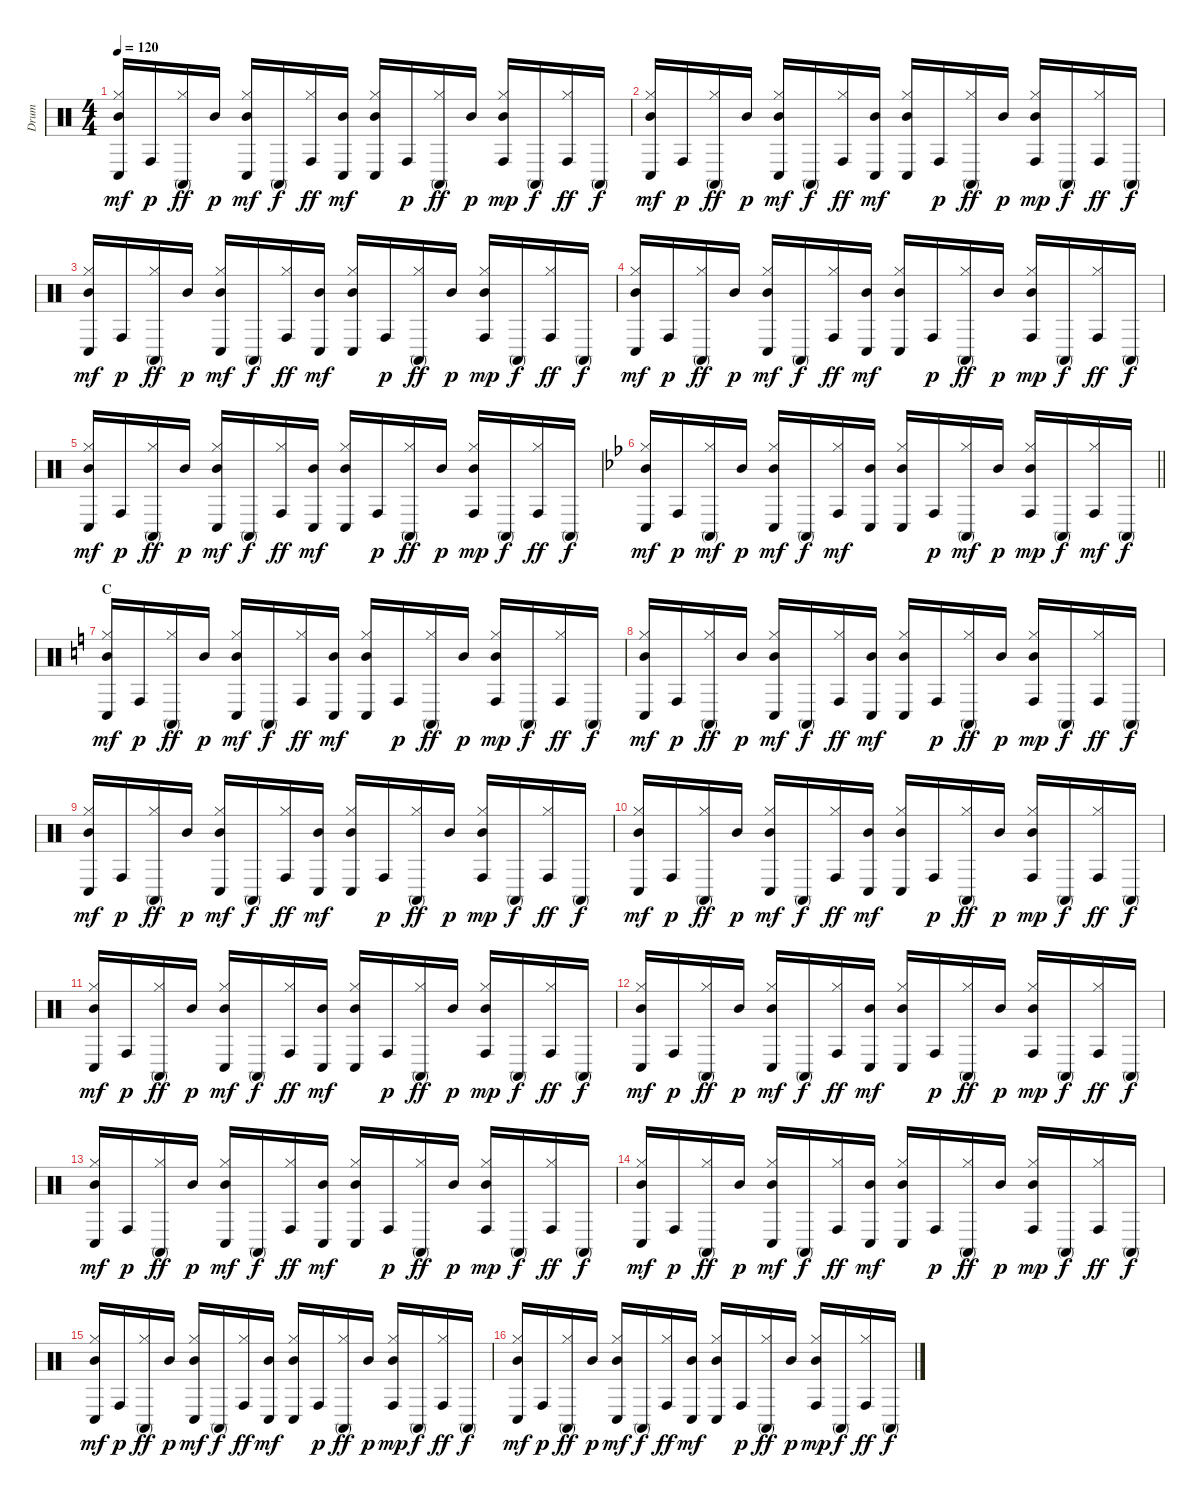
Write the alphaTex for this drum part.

\track ("Drum" "Drum") {instrument percussion}
\staff {score}
\articulation defaults
\ts (4 4)
\tempo 120
\clef neutral
\ks c
("Mid Tom (hit)" "Hi-Hat (closed)" "Conga low (hit)").16{dy mf} "Conga high (hit)".16{dy p} ("Hi-Hat (closed)" "Conga high (mute)").16{dy ff} "Mid Tom (hit)".16{dy p} ("Mid Tom (hit)" "Hi-Hat (closed)" "Conga low (hit)").16{dy mf} "Conga high (mute)".16{dy f} ("Conga high (hit)" "Hi-Hat (closed)").16{dy ff} ("Mid Tom (hit)" "Conga low (hit)").16{dy mf} ("Mid Tom (hit)" "Hi-Hat (closed)" "Conga low (hit)").16 "Conga high (hit)".16{dy p} ("Hi-Hat (closed)" "Conga high (mute)").16{dy ff} "Mid Tom (hit)".16{dy p} ("Mid Tom (hit)" "Hi-Hat (closed)" "Conga high (hit)").16{dy mp} "Conga high (mute)".16{dy f} ("Conga high (hit)" "Hi-Hat (closed)").16{dy ff} "Conga high (mute)".16{dy f} |
("Mid Tom (hit)" "Hi-Hat (closed)" "Conga low (hit)").16{dy mf} "Conga high (hit)".16{dy p} ("Hi-Hat (closed)" "Conga high (mute)").16{dy ff} "Mid Tom (hit)".16{dy p} ("Mid Tom (hit)" "Hi-Hat (closed)" "Conga low (hit)").16{dy mf} "Conga high (mute)".16{dy f} ("Conga high (hit)" "Hi-Hat (closed)").16{dy ff} ("Mid Tom (hit)" "Conga low (hit)").16{dy mf} ("Mid Tom (hit)" "Hi-Hat (closed)" "Conga low (hit)").16 "Conga high (hit)".16{dy p} ("Hi-Hat (closed)" "Conga high (mute)").16{dy ff} "Mid Tom (hit)".16{dy p} ("Mid Tom (hit)" "Hi-Hat (closed)" "Conga high (hit)").16{dy mp} "Conga high (mute)".16{dy f} ("Conga high (hit)" "Hi-Hat (closed)").16{dy ff} "Conga high (mute)".16{dy f} |
("Mid Tom (hit)" "Hi-Hat (closed)" "Conga low (hit)").16{dy mf} "Conga high (hit)".16{dy p} ("Hi-Hat (closed)" "Conga high (mute)").16{dy ff} "Mid Tom (hit)".16{dy p} ("Mid Tom (hit)" "Hi-Hat (closed)" "Conga low (hit)").16{dy mf} "Conga high (mute)".16{dy f} ("Conga high (hit)" "Hi-Hat (closed)").16{dy ff} ("Mid Tom (hit)" "Conga low (hit)").16{dy mf} ("Mid Tom (hit)" "Hi-Hat (closed)" "Conga low (hit)").16 "Conga high (hit)".16{dy p} ("Hi-Hat (closed)" "Conga high (mute)").16{dy ff} "Mid Tom (hit)".16{dy p} ("Mid Tom (hit)" "Hi-Hat (closed)" "Conga high (hit)").16{dy mp} "Conga high (mute)".16{dy f} ("Conga high (hit)" "Hi-Hat (closed)").16{dy ff} "Conga high (mute)".16{dy f} |
("Mid Tom (hit)" "Hi-Hat (closed)" "Conga low (hit)").16{dy mf} "Conga high (hit)".16{dy p} ("Hi-Hat (closed)" "Conga high (mute)").16{dy ff} "Mid Tom (hit)".16{dy p} ("Mid Tom (hit)" "Hi-Hat (closed)" "Conga low (hit)").16{dy mf} "Conga high (mute)".16{dy f} ("Conga high (hit)" "Hi-Hat (closed)").16{dy ff} ("Mid Tom (hit)" "Conga low (hit)").16{dy mf} ("Mid Tom (hit)" "Hi-Hat (closed)" "Conga low (hit)").16 "Conga high (hit)".16{dy p} ("Hi-Hat (closed)" "Conga high (mute)").16{dy ff} "Mid Tom (hit)".16{dy p} ("Mid Tom (hit)" "Hi-Hat (closed)" "Conga high (hit)").16{dy mp} "Conga high (mute)".16{dy f} ("Conga high (hit)" "Hi-Hat (closed)").16{dy ff} "Conga high (mute)".16{dy f} |
("Mid Tom (hit)" "Hi-Hat (closed)" "Conga low (hit)").16{dy mf} "Conga high (hit)".16{dy p} ("Hi-Hat (closed)" "Conga high (mute)").16{dy ff} "Mid Tom (hit)".16{dy p} ("Mid Tom (hit)" "Hi-Hat (closed)" "Conga low (hit)").16{dy mf} "Conga high (mute)".16{dy f} ("Conga high (hit)" "Hi-Hat (closed)").16{dy ff} ("Mid Tom (hit)" "Conga low (hit)").16{dy mf} ("Mid Tom (hit)" "Hi-Hat (closed)" "Conga low (hit)").16 "Conga high (hit)".16{dy p} ("Hi-Hat (closed)" "Conga high (mute)").16{dy ff} "Mid Tom (hit)".16{dy p} ("Mid Tom (hit)" "Hi-Hat (closed)" "Conga high (hit)").16{dy mp} "Conga high (mute)".16{dy f} ("Conga high (hit)" "Hi-Hat (closed)").16{dy ff} "Conga high (mute)".16{dy f} |
\barLineRight lightlight
\ks bb
("Mid Tom (hit)" "Hi-Hat (closed)" "Conga low (hit)").16{dy mf} "Conga high (hit)".16{dy p} ("Hi-Hat (closed)" "Conga high (mute)").16{dy mf} "Mid Tom (hit)".16{dy p} ("Mid Tom (hit)" "Hi-Hat (closed)" "Conga low (hit)").16{dy mf} "Conga high (mute)".16{dy f} ("Conga high (hit)" "Hi-Hat (closed)").16{dy mf} ("Mid Tom (hit)" "Conga low (hit)").16 ("Mid Tom (hit)" "Hi-Hat (closed)" "Conga low (hit)").16 "Conga high (hit)".16{dy p} ("Hi-Hat (closed)" "Conga high (mute)").16{dy mf} "Mid Tom (hit)".16{dy p} ("Mid Tom (hit)" "Hi-Hat (closed)" "Conga high (hit)").16{dy mp} "Conga high (mute)".16{dy f} ("Conga high (hit)" "Hi-Hat (closed)").16{dy mf} "Conga high (mute)".16{dy f} |
\section ("" "C")
\ks c
("Mid Tom (hit)" "Hi-Hat (closed)" "Conga low (hit)").16{dy mf} "Conga high (hit)".16{dy p} ("Hi-Hat (closed)" "Conga high (mute)").16{dy ff} "Mid Tom (hit)".16{dy p} ("Mid Tom (hit)" "Hi-Hat (closed)" "Conga low (hit)").16{dy mf} "Conga high (mute)".16{dy f} ("Conga high (hit)" "Hi-Hat (closed)").16{dy ff} ("Mid Tom (hit)" "Conga low (hit)").16{dy mf} ("Mid Tom (hit)" "Hi-Hat (closed)" "Conga low (hit)").16 "Conga high (hit)".16{dy p} ("Hi-Hat (closed)" "Conga high (mute)").16{dy ff} "Mid Tom (hit)".16{dy p} ("Mid Tom (hit)" "Hi-Hat (closed)" "Conga high (hit)").16{dy mp} "Conga high (mute)".16{dy f} ("Conga high (hit)" "Hi-Hat (closed)").16{dy ff} "Conga high (mute)".16{dy f} |
("Mid Tom (hit)" "Hi-Hat (closed)" "Conga low (hit)").16{dy mf} "Conga high (hit)".16{dy p} ("Hi-Hat (closed)" "Conga high (mute)").16{dy ff} "Mid Tom (hit)".16{dy p} ("Mid Tom (hit)" "Hi-Hat (closed)" "Conga low (hit)").16{dy mf} "Conga high (mute)".16{dy f} ("Conga high (hit)" "Hi-Hat (closed)").16{dy ff} ("Mid Tom (hit)" "Conga low (hit)").16{dy mf} ("Mid Tom (hit)" "Hi-Hat (closed)" "Conga low (hit)").16 "Conga high (hit)".16{dy p} ("Hi-Hat (closed)" "Conga high (mute)").16{dy ff} "Mid Tom (hit)".16{dy p} ("Mid Tom (hit)" "Hi-Hat (closed)" "Conga high (hit)").16{dy mp} "Conga high (mute)".16{dy f} ("Conga high (hit)" "Hi-Hat (closed)").16{dy ff} "Conga high (mute)".16{dy f} |
("Mid Tom (hit)" "Hi-Hat (closed)" "Conga low (hit)").16{dy mf} "Conga high (hit)".16{dy p} ("Hi-Hat (closed)" "Conga high (mute)").16{dy ff} "Mid Tom (hit)".16{dy p} ("Mid Tom (hit)" "Hi-Hat (closed)" "Conga low (hit)").16{dy mf} "Conga high (mute)".16{dy f} ("Conga high (hit)" "Hi-Hat (closed)").16{dy ff} ("Mid Tom (hit)" "Conga low (hit)").16{dy mf} ("Mid Tom (hit)" "Hi-Hat (closed)" "Conga low (hit)").16 "Conga high (hit)".16{dy p} ("Hi-Hat (closed)" "Conga high (mute)").16{dy ff} "Mid Tom (hit)".16{dy p} ("Mid Tom (hit)" "Hi-Hat (closed)" "Conga high (hit)").16{dy mp} "Conga high (mute)".16{dy f} ("Conga high (hit)" "Hi-Hat (closed)").16{dy ff} "Conga high (mute)".16{dy f} |
("Mid Tom (hit)" "Hi-Hat (closed)" "Conga low (hit)").16{dy mf} "Conga high (hit)".16{dy p} ("Hi-Hat (closed)" "Conga high (mute)").16{dy ff} "Mid Tom (hit)".16{dy p} ("Mid Tom (hit)" "Hi-Hat (closed)" "Conga low (hit)").16{dy mf} "Conga high (mute)".16{dy f} ("Conga high (hit)" "Hi-Hat (closed)").16{dy ff} ("Mid Tom (hit)" "Conga low (hit)").16{dy mf} ("Mid Tom (hit)" "Hi-Hat (closed)" "Conga low (hit)").16 "Conga high (hit)".16{dy p} ("Hi-Hat (closed)" "Conga high (mute)").16{dy ff} "Mid Tom (hit)".16{dy p} ("Mid Tom (hit)" "Hi-Hat (closed)" "Conga high (hit)").16{dy mp} "Conga high (mute)".16{dy f} ("Conga high (hit)" "Hi-Hat (closed)").16{dy ff} "Conga high (mute)".16{dy f} |
("Mid Tom (hit)" "Hi-Hat (closed)" "Conga low (hit)").16{dy mf} "Conga high (hit)".16{dy p} ("Hi-Hat (closed)" "Conga high (mute)").16{dy ff} "Mid Tom (hit)".16{dy p} ("Mid Tom (hit)" "Hi-Hat (closed)" "Conga low (hit)").16{dy mf} "Conga high (mute)".16{dy f} ("Conga high (hit)" "Hi-Hat (closed)").16{dy ff} ("Mid Tom (hit)" "Conga low (hit)").16{dy mf} ("Mid Tom (hit)" "Hi-Hat (closed)" "Conga low (hit)").16 "Conga high (hit)".16{dy p} ("Hi-Hat (closed)" "Conga high (mute)").16{dy ff} "Mid Tom (hit)".16{dy p} ("Mid Tom (hit)" "Hi-Hat (closed)" "Conga high (hit)").16{dy mp} "Conga high (mute)".16{dy f} ("Conga high (hit)" "Hi-Hat (closed)").16{dy ff} "Conga high (mute)".16{dy f} |
("Mid Tom (hit)" "Hi-Hat (closed)" "Conga low (hit)").16{dy mf} "Conga high (hit)".16{dy p} ("Hi-Hat (closed)" "Conga high (mute)").16{dy ff} "Mid Tom (hit)".16{dy p} ("Mid Tom (hit)" "Hi-Hat (closed)" "Conga low (hit)").16{dy mf} "Conga high (mute)".16{dy f} ("Conga high (hit)" "Hi-Hat (closed)").16{dy ff} ("Mid Tom (hit)" "Conga low (hit)").16{dy mf} ("Mid Tom (hit)" "Hi-Hat (closed)" "Conga low (hit)").16 "Conga high (hit)".16{dy p} ("Hi-Hat (closed)" "Conga high (mute)").16{dy ff} "Mid Tom (hit)".16{dy p} ("Mid Tom (hit)" "Hi-Hat (closed)" "Conga high (hit)").16{dy mp} "Conga high (mute)".16{dy f} ("Conga high (hit)" "Hi-Hat (closed)").16{dy ff} "Conga high (mute)".16{dy f} |
("Mid Tom (hit)" "Hi-Hat (closed)" "Conga low (hit)").16{dy mf} "Conga high (hit)".16{dy p} ("Hi-Hat (closed)" "Conga high (mute)").16{dy ff} "Mid Tom (hit)".16{dy p} ("Mid Tom (hit)" "Hi-Hat (closed)" "Conga low (hit)").16{dy mf} "Conga high (mute)".16{dy f} ("Conga high (hit)" "Hi-Hat (closed)").16{dy ff} ("Mid Tom (hit)" "Conga low (hit)").16{dy mf} ("Mid Tom (hit)" "Hi-Hat (closed)" "Conga low (hit)").16 "Conga high (hit)".16{dy p} ("Hi-Hat (closed)" "Conga high (mute)").16{dy ff} "Mid Tom (hit)".16{dy p} ("Mid Tom (hit)" "Hi-Hat (closed)" "Conga high (hit)").16{dy mp} "Conga high (mute)".16{dy f} ("Conga high (hit)" "Hi-Hat (closed)").16{dy ff} "Conga high (mute)".16{dy f} |
("Mid Tom (hit)" "Hi-Hat (closed)" "Conga low (hit)").16{dy mf} "Conga high (hit)".16{dy p} ("Hi-Hat (closed)" "Conga high (mute)").16{dy ff} "Mid Tom (hit)".16{dy p} ("Mid Tom (hit)" "Hi-Hat (closed)" "Conga low (hit)").16{dy mf} "Conga high (mute)".16{dy f} ("Conga high (hit)" "Hi-Hat (closed)").16{dy ff} ("Mid Tom (hit)" "Conga low (hit)").16{dy mf} ("Mid Tom (hit)" "Hi-Hat (closed)" "Conga low (hit)").16 "Conga high (hit)".16{dy p} ("Hi-Hat (closed)" "Conga high (mute)").16{dy ff} "Mid Tom (hit)".16{dy p} ("Mid Tom (hit)" "Hi-Hat (closed)" "Conga high (hit)").16{dy mp} "Conga high (mute)".16{dy f} ("Conga high (hit)" "Hi-Hat (closed)").16{dy ff} "Conga high (mute)".16{dy f} |
("Mid Tom (hit)" "Hi-Hat (closed)" "Conga low (hit)").16{dy mf} "Conga high (hit)".16{dy p} ("Hi-Hat (closed)" "Conga high (mute)").16{dy ff} "Mid Tom (hit)".16{dy p} ("Mid Tom (hit)" "Hi-Hat (closed)" "Conga low (hit)").16{dy mf} "Conga high (mute)".16{dy f} ("Conga high (hit)" "Hi-Hat (closed)").16{dy ff} ("Mid Tom (hit)" "Conga low (hit)").16{dy mf} ("Mid Tom (hit)" "Hi-Hat (closed)" "Conga low (hit)").16 "Conga high (hit)".16{dy p} ("Hi-Hat (closed)" "Conga high (mute)").16{dy ff} "Mid Tom (hit)".16{dy p} ("Mid Tom (hit)" "Hi-Hat (closed)" "Conga high (hit)").16{dy mp} "Conga high (mute)".16{dy f} ("Conga high (hit)" "Hi-Hat (closed)").16{dy ff} "Conga high (mute)".16{dy f} |
("Mid Tom (hit)" "Hi-Hat (closed)" "Conga low (hit)").16{dy mf} "Conga high (hit)".16{dy p} ("Hi-Hat (closed)" "Conga high (mute)").16{dy ff} "Mid Tom (hit)".16{dy p} ("Mid Tom (hit)" "Hi-Hat (closed)" "Conga low (hit)").16{dy mf} "Conga high (mute)".16{dy f} ("Conga high (hit)" "Hi-Hat (closed)").16{dy ff} ("Mid Tom (hit)" "Conga low (hit)").16{dy mf} ("Mid Tom (hit)" "Hi-Hat (closed)" "Conga low (hit)").16 "Conga high (hit)".16{dy p} ("Hi-Hat (closed)" "Conga high (mute)").16{dy ff} "Mid Tom (hit)".16{dy p} ("Mid Tom (hit)" "Hi-Hat (closed)" "Conga high (hit)").16{dy mp} "Conga high (mute)".16{dy f} ("Conga high (hit)" "Hi-Hat (closed)").16{dy ff} "Conga high (mute)".16{dy f}
